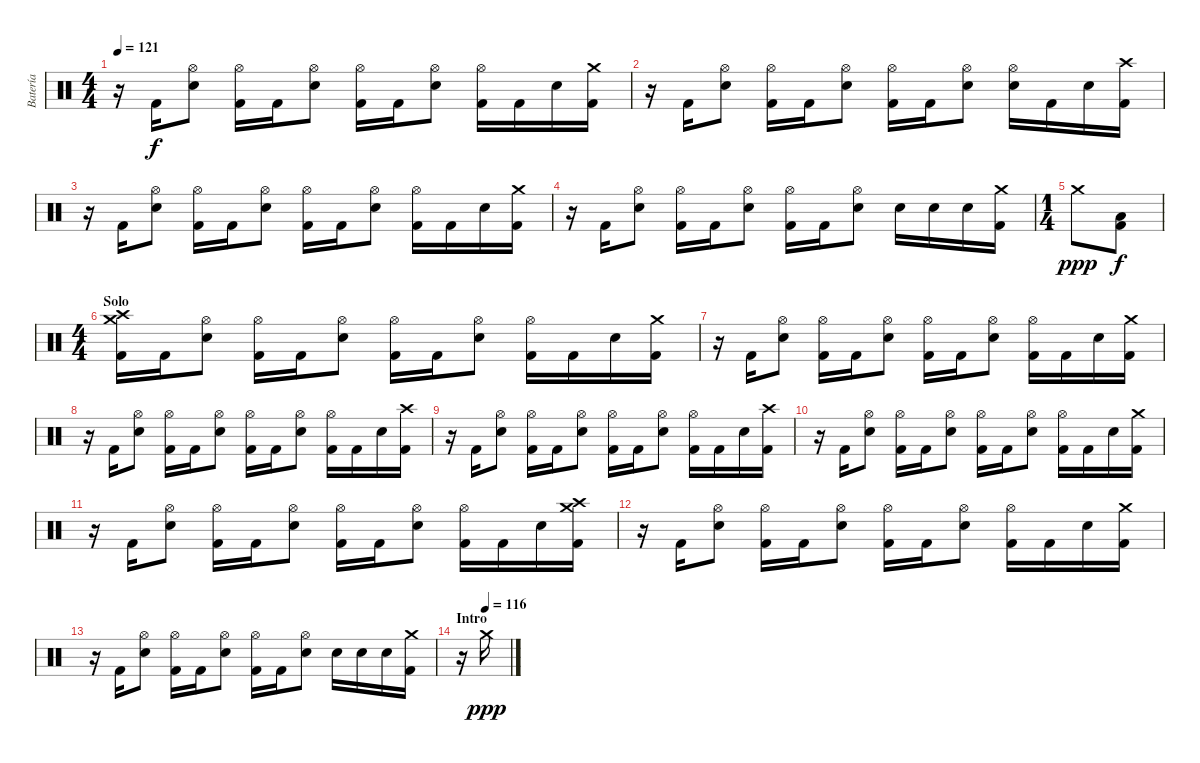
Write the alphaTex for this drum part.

\track ("Batería" "Batería") {instrument percussion}
\staff {score}
\articulation defaults
\ts (4 4)
\tempo 121
\clef neutral
\ks c
r.16{dy f} "Kick (hit) 2".16 ("Hi-Hat (open)" "Electric Snare (hit)").8 ("Hi-Hat (open)" "Kick (hit) 2").16 "Kick (hit) 2".16 ("Hi-Hat (open)" "Electric Snare (hit)").8 ("Hi-Hat (open)" "Kick (hit) 2").16 "Kick (hit) 2".16 ("Hi-Hat (open)" "Electric Snare (hit)").8 ("Hi-Hat (open)" "Kick (hit) 2").16 "Kick (hit) 2".16 "Electric Snare (hit)".16 ("Crash medium (hit)" "Kick (hit) 2").16 |
r.16 "Kick (hit) 2".16 ("Hi-Hat (open)" "Electric Snare (hit)").8 ("Hi-Hat (open)" "Kick (hit) 2").16 "Kick (hit) 2".16 ("Hi-Hat (open)" "Electric Snare (hit)").8 ("Hi-Hat (open)" "Kick (hit) 2").16 "Kick (hit) 2".16 ("Hi-Hat (open)" "Electric Snare (hit)").8 ("Hi-Hat (open)" "Electric Snare (hit)").16 "Kick (hit) 2".16 "Electric Snare (hit)".16 ("Crash high (hit)" "Kick (hit) 2").16 |
r.16 "Kick (hit) 2".16 ("Hi-Hat (open)" "Electric Snare (hit)").8 ("Hi-Hat (open)" "Kick (hit) 2").16 "Kick (hit) 2".16 ("Hi-Hat (open)" "Electric Snare (hit)").8 ("Hi-Hat (open)" "Kick (hit) 2").16 "Kick (hit) 2".16 ("Hi-Hat (open)" "Electric Snare (hit)").8 ("Hi-Hat (open)" "Kick (hit) 2").16 "Kick (hit) 2".16 "Electric Snare (hit)".16 ("Crash medium (hit)" "Kick (hit) 2").16 |
r.16 "Kick (hit) 2".16 ("Hi-Hat (open)" "Electric Snare (hit)").8 ("Hi-Hat (open)" "Kick (hit) 2").16 "Kick (hit) 2".16 ("Hi-Hat (open)" "Electric Snare (hit)").8 ("Hi-Hat (open)" "Kick (hit) 2").16 "Kick (hit) 2".16 ("Hi-Hat (open)" "Electric Snare (hit)").8 "Electric Snare (hit)".16 "Electric Snare (hit)".16 "Electric Snare (hit)".16 ("Crash medium (hit)" "Kick (hit) 2").16 |
\ts (1 4)
"Crash medium (hit)".8{dy ppp} ("Low Floor Tom (hit)" "Kick (hit) 2").8{dy f} |
\ts (4 4)
\section ("" "Solo")
("Crash medium (hit)" "Crash high (hit)" "Kick (hit) 2").16 "Kick (hit) 2".16 ("Hi-Hat (open)" "Electric Snare (hit)").8 ("Hi-Hat (open)" "Kick (hit) 2").16 "Kick (hit) 2".16 ("Hi-Hat (open)" "Electric Snare (hit)").8 ("Hi-Hat (open)" "Kick (hit) 2").16 "Kick (hit) 2".16 ("Hi-Hat (open)" "Electric Snare (hit)").8 ("Hi-Hat (open)" "Kick (hit) 2").16 "Kick (hit) 2".16 "Electric Snare (hit)".16 ("Crash medium (hit)" "Kick (hit) 2").16 |
r.16 "Kick (hit) 2".16 ("Hi-Hat (open)" "Electric Snare (hit)").8 ("Hi-Hat (open)" "Kick (hit) 2").16 "Kick (hit) 2".16 ("Hi-Hat (open)" "Electric Snare (hit)").8 ("Hi-Hat (open)" "Kick (hit) 2").16 "Kick (hit) 2".16 ("Hi-Hat (open)" "Electric Snare (hit)").8 ("Hi-Hat (open)" "Kick (hit) 2").16 "Kick (hit) 2".16 "Electric Snare (hit)".16 ("Crash medium (hit)" "Kick (hit) 2").16 |
r.16 "Kick (hit) 2".16 ("Hi-Hat (open)" "Electric Snare (hit)").8 ("Hi-Hat (open)" "Kick (hit) 2").16 "Kick (hit) 2".16 ("Hi-Hat (open)" "Electric Snare (hit)").8 ("Hi-Hat (open)" "Kick (hit) 2").16 "Kick (hit) 2".16 ("Hi-Hat (open)" "Electric Snare (hit)").8 ("Hi-Hat (open)" "Kick (hit) 2").16 "Kick (hit) 2".16 "Electric Snare (hit)".16 ("Crash high (hit)" "Kick (hit) 2").16 |
r.16 "Kick (hit) 2".16 ("Hi-Hat (open)" "Electric Snare (hit)").8 ("Hi-Hat (open)" "Kick (hit) 2").16 "Kick (hit) 2".16 ("Hi-Hat (open)" "Electric Snare (hit)").8 ("Hi-Hat (open)" "Kick (hit) 2").16 "Kick (hit) 2".16 ("Hi-Hat (open)" "Electric Snare (hit)").8 ("Hi-Hat (open)" "Kick (hit) 2").16 "Kick (hit) 2".16 "Electric Snare (hit)".16 ("Crash high (hit)" "Kick (hit) 2").16 |
r.16 "Kick (hit) 2".16 ("Hi-Hat (open)" "Electric Snare (hit)").8 ("Hi-Hat (open)" "Kick (hit) 2").16 "Kick (hit) 2".16 ("Hi-Hat (open)" "Electric Snare (hit)").8 ("Hi-Hat (open)" "Kick (hit) 2").16 "Kick (hit) 2".16 ("Hi-Hat (open)" "Electric Snare (hit)").8 ("Hi-Hat (open)" "Kick (hit) 2").16 "Kick (hit) 2".16 "Electric Snare (hit)".16 ("Crash medium (hit)" "Kick (hit) 2").16 |
r.16 "Kick (hit) 2".16 ("Hi-Hat (open)" "Electric Snare (hit)").8 ("Hi-Hat (open)" "Kick (hit) 2").16 "Kick (hit) 2".16 ("Hi-Hat (open)" "Electric Snare (hit)").8 ("Hi-Hat (open)" "Kick (hit) 2").16 "Kick (hit) 2".16 ("Hi-Hat (open)" "Electric Snare (hit)").8 ("Hi-Hat (open)" "Kick (hit) 2").16 "Kick (hit) 2".16 "Electric Snare (hit)".16 ("Crash medium (hit)" "Crash high (hit)" "Kick (hit) 2").16 |
r.16 "Kick (hit) 2".16 ("Hi-Hat (open)" "Electric Snare (hit)").8 ("Hi-Hat (open)" "Kick (hit) 2").16 "Kick (hit) 2".16 ("Hi-Hat (open)" "Electric Snare (hit)").8 ("Hi-Hat (open)" "Kick (hit) 2").16 "Kick (hit) 2".16 ("Hi-Hat (open)" "Electric Snare (hit)").8 ("Hi-Hat (open)" "Kick (hit) 2").16 "Kick (hit) 2".16 "Electric Snare (hit)".16 ("Crash medium (hit)" "Kick (hit) 2").16 |
r.16 "Kick (hit) 2".16 ("Hi-Hat (open)" "Electric Snare (hit)").8 ("Hi-Hat (open)" "Kick (hit) 2").16 "Kick (hit) 2".16 ("Hi-Hat (open)" "Electric Snare (hit)").8 ("Hi-Hat (open)" "Kick (hit) 2").16 "Kick (hit) 2".16 ("Hi-Hat (open)" "Electric Snare (hit)").8 "Electric Snare (hit)".16 "Electric Snare (hit)".16 "Electric Snare (hit)".16 ("Crash medium (hit)" "Kick (hit) 2").16 |
\section ("" "Intro")
\tempo (116 0.5)
r.16 "Crash medium (hit)".16{dy ppp}
